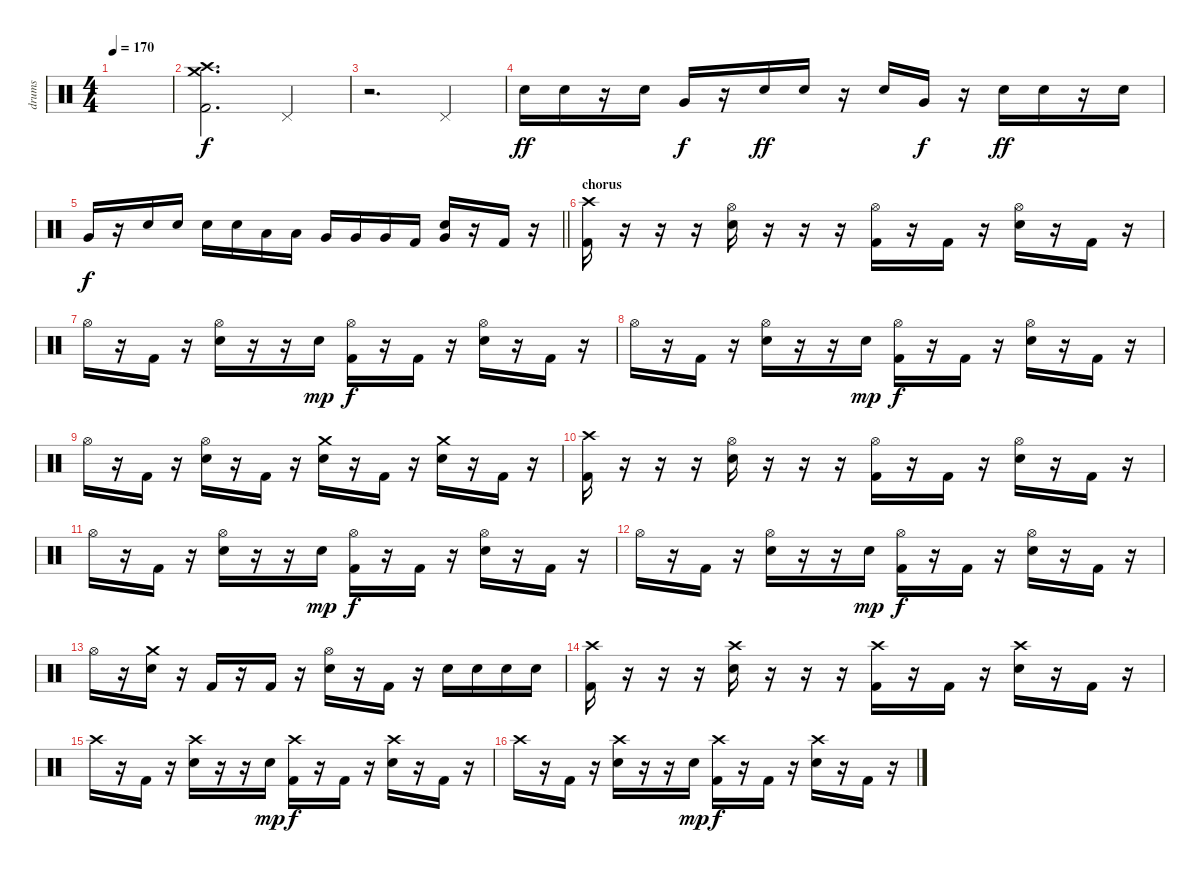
\track ("drums" "drums") {instrument percussion}
\staff {score}
\articulation defaults
\ts (4 4)
\tempo 170
\clef neutral
\ks c
|
("Crash high (hit)" "Crash medium (hit)" "Kick (hit) 2").2{d} "Pedal Hi-Hat (hit)".4 |
r.2{d} "Pedal Hi-Hat (hit)".4 |
"Snare (hit) 2".16{dy ff} "Snare (hit) 2".16 r.16 "Snare (hit) 2".16 "Very Low Tom (hit)".16{dy f} r.16 "Snare (hit) 2".16{dy ff} "Snare (hit) 2".16 r.16 "Snare (hit) 2".16 "Very Low Tom (hit)".16{dy f} r.16 "Snare (hit) 2".16{dy ff} "Snare (hit) 2".16 r.16 "Snare (hit) 2".16 |
\barLineRight lightlight "Very Low Tom (hit)".16{dy f}
r.16 "Snare (hit) 2".16 "Snare (hit) 2".16 "Snare (hit) 2".16 "Snare (hit) 2".16 "Low Tom (hit)".16 "Low Tom (hit)".16 "Very Low Tom (hit)".16 "Very Low Tom (hit)".16 "Very Low Tom (hit)".16 "Kick (hit) 2".16 ("Snare (hit) 2" "Very Low Tom (hit)").16 r.16 "Kick (hit) 2".16 r.16 |
\section ("" "chorus")
("Crash high (hit)" "Kick (hit) 2").16 r.16 r.16 r.16 ("Hi-Hat (open)" "Snare (hit) 2").16 r.16 r.16 r.16 ("Hi-Hat (open)" "Kick (hit) 2").16 r.16 "Kick (hit) 2".16 r.16 ("Hi-Hat (open)" "Snare (hit) 2").16 r.16 "Kick (hit) 2".16 r.16 |
"Hi-Hat (open)".16 r.16 "Kick (hit) 2".16 r.16 ("Hi-Hat (open)" "Snare (hit) 2").16 r.16 r.16 "Snare (hit) 2".16{dy mp} ("Hi-Hat (open)" "Kick (hit) 2").16{dy f} r.16 "Kick (hit) 2".16 r.16 ("Hi-Hat (open)" "Snare (hit) 2").16 r.16 "Kick (hit) 2".16 r.16 |
"Hi-Hat (open)".16 r.16 "Kick (hit) 2".16 r.16 ("Hi-Hat (open)" "Snare (hit) 2").16 r.16 r.16 "Snare (hit) 2".16{dy mp} ("Hi-Hat (open)" "Kick (hit) 2").16{dy f} r.16 "Kick (hit) 2".16 r.16 ("Hi-Hat (open)" "Snare (hit) 2").16 r.16 "Kick (hit) 2".16 r.16 |
"Hi-Hat (open)".16 r.16 "Kick (hit) 2".16 r.16 ("Hi-Hat (open)" "Snare (hit) 2").16 r.16 "Kick (hit) 2".16 r.16 ("Crash medium (hit)" "Snare (hit) 2").16 r.16 "Kick (hit) 2".16 r.16 ("Crash medium (hit)" "Snare (hit) 2").16 r.16 "Kick (hit) 2".16 r.16 |
("Crash high (hit)" "Kick (hit) 2").16 r.16 r.16 r.16 ("Hi-Hat (open)" "Snare (hit) 2").16 r.16 r.16 r.16 ("Hi-Hat (open)" "Kick (hit) 2").16 r.16 "Kick (hit) 2".16 r.16 ("Hi-Hat (open)" "Snare (hit) 2").16 r.16 "Kick (hit) 2".16 r.16 |
"Hi-Hat (open)".16 r.16 "Kick (hit) 2".16 r.16 ("Hi-Hat (open)" "Snare (hit) 2").16 r.16 r.16 "Snare (hit) 2".16{dy mp} ("Hi-Hat (open)" "Kick (hit) 2").16{dy f} r.16 "Kick (hit) 2".16 r.16 ("Hi-Hat (open)" "Snare (hit) 2").16 r.16 "Kick (hit) 2".16 r.16 |
"Hi-Hat (open)".16 r.16 "Kick (hit) 2".16 r.16 ("Hi-Hat (open)" "Snare (hit) 2").16 r.16 r.16 "Snare (hit) 2".16{dy mp} ("Hi-Hat (open)" "Kick (hit) 2").16{dy f} r.16 "Kick (hit) 2".16 r.16 ("Hi-Hat (open)" "Snare (hit) 2").16 r.16 "Kick (hit) 2".16 r.16 |
"Hi-Hat (open)".16 r.16 ("Crash medium (hit)" "Snare (hit) 2").16 r.16 "Kick (hit) 2".16 r.16 "Kick (hit) 2".16 r.16 ("Hi-Hat (open)" "Snare (hit) 2").16 r.16 "Kick (hit) 2".16 r.16 "Snare (hit) 2".16 "Snare (hit) 2".16 "Snare (hit) 2".16 "Snare (hit) 2".16 |
("Crash high (hit)" "Kick (hit) 2").16 r.16 r.16 r.16 ("Crash high (hit)" "Snare (hit) 2").16 r.16 r.16 r.16 ("Crash high (hit)" "Kick (hit) 2").16 r.16 "Kick (hit) 2".16 r.16 ("Crash high (hit)" "Snare (hit) 2").16 r.16 "Kick (hit) 2".16 r.16 |
"Crash high (hit)".16 r.16 "Kick (hit) 2".16 r.16 ("Crash high (hit)" "Snare (hit) 2").16 r.16 r.16 "Snare (hit) 2".16{dy mp} ("Crash high (hit)" "Kick (hit) 2").16{dy f} r.16 "Kick (hit) 2".16 r.16 ("Crash high (hit)" "Snare (hit) 2").16 r.16 "Kick (hit) 2".16 r.16 |
"Crash high (hit)".16 r.16 "Kick (hit) 2".16 r.16 ("Crash high (hit)" "Snare (hit) 2").16 r.16 r.16 "Snare (hit) 2".16{dy mp} ("Crash high (hit)" "Kick (hit) 2").16{dy f} r.16 "Kick (hit) 2".16 r.16 ("Crash high (hit)" "Snare (hit) 2").16 r.16 "Kick (hit) 2".16 r.16
